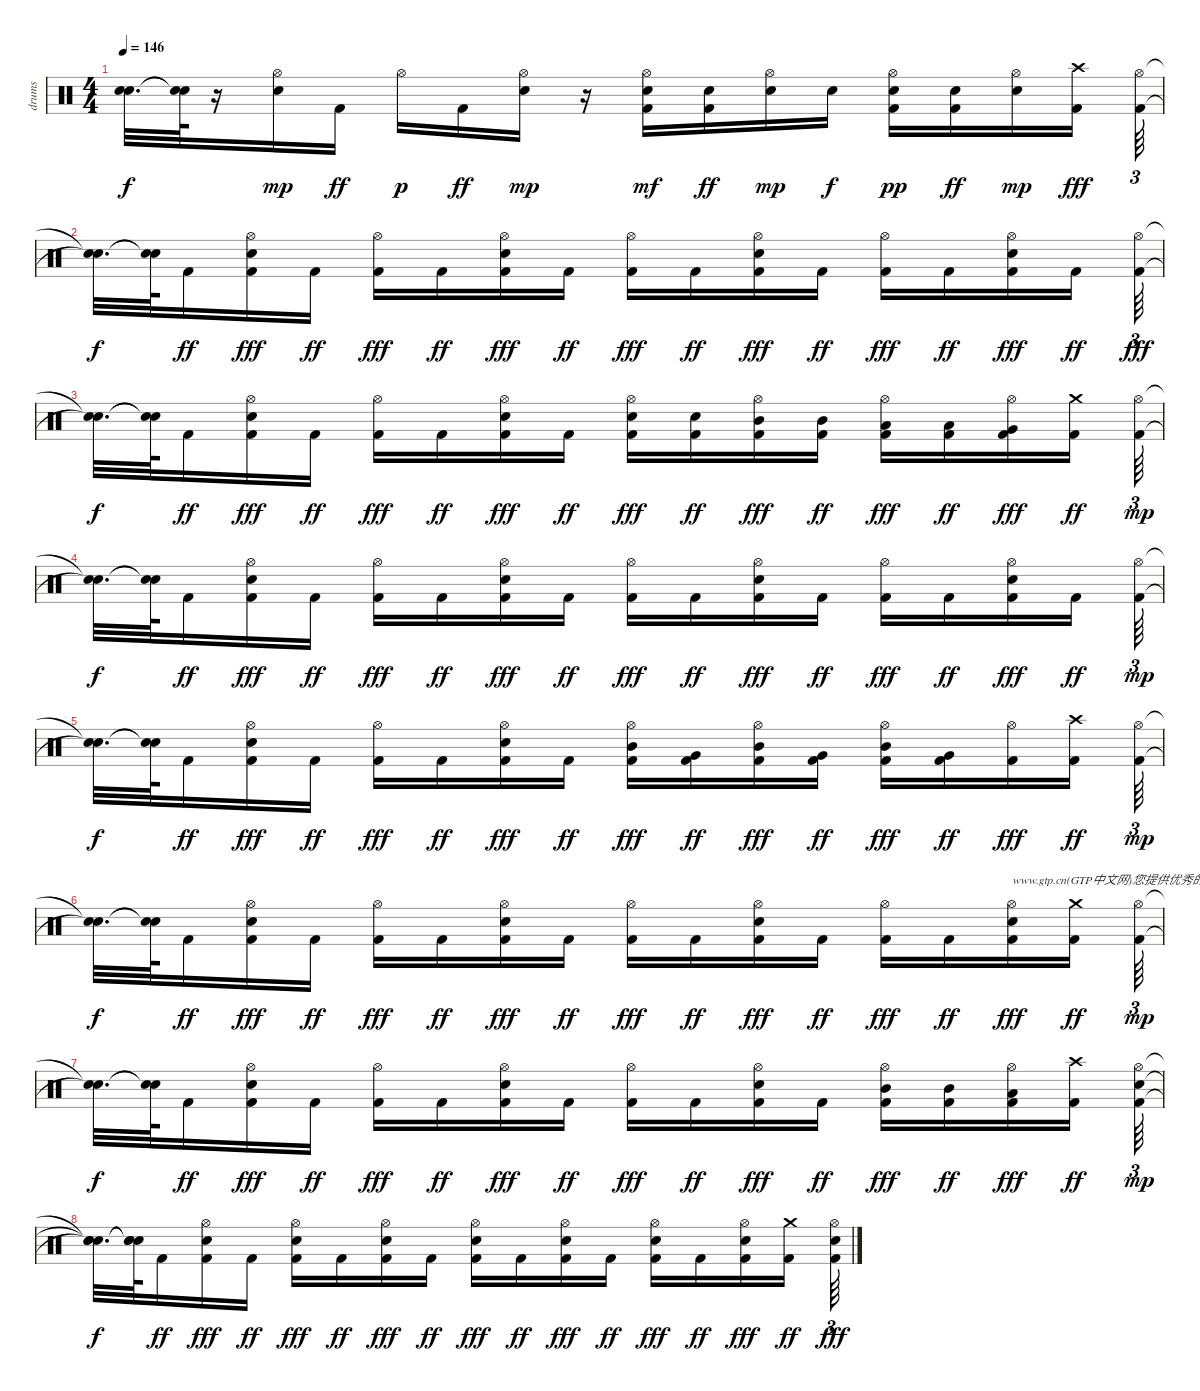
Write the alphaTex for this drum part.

\track ("drums" "drums") {instrument percussion}
\staff {score}
\articulation defaults
\ts (4 4)
\tempo 146
\clef neutral
\ks c
("Snare (hit)"{t} "Snare (hit)"{t}).32{d dy f} ("Snare (hit)"{t} "Snare (hit)"{t}).64 r.16 ("Hi-Hat (open)" "Electric Snare (hit)").16{dy mp} "Kick (hit) 2".16{dy ff} "Hi-Hat (open)".16{dy p} "Kick (hit) 2".16{dy ff} ("Hi-Hat (open)" "Electric Snare (hit)").16{dy mp} r.16 ("Hi-Hat (open)" "Electric Snare (hit)" "Kick (hit) 2").16{dy mf} ("Electric Snare (hit)" "Kick (hit) 2").16{dy ff} ("Hi-Hat (open)" "Electric Snare (hit)").16{dy mp} "Electric Snare (hit)".16{dy f} ("Hi-Hat (open)" "Electric Snare (hit)" "Kick (hit) 2").16{dy pp} ("Electric Snare (hit)" "Kick (hit) 2").16{dy ff} ("Hi-Hat (open)" "Electric Snare (hit)").16{dy mp} ("Crash high (hit)" "Kick (hit) 2").16{dy fff} ("Hi-Hat (open)" "Kick (hit) 2").64{tu (3 2)} |
("Snare (hit)"{t} "Snare (hit)"{t}).32{d dy f} ("Snare (hit)"{t} "Snare (hit)"{t}).64 "Kick (hit) 2".16{dy ff} ("Hi-Hat (open)" "Electric Snare (hit)" "Kick (hit) 2").16{dy fff} "Kick (hit) 2".16{dy ff} ("Hi-Hat (open)" "Kick (hit) 2").16{dy fff} "Kick (hit) 2".16{dy ff} ("Hi-Hat (open)" "Electric Snare (hit)" "Kick (hit) 2").16{dy fff} "Kick (hit) 2".16{dy ff} ("Hi-Hat (open)" "Kick (hit) 2").16{dy fff} "Kick (hit) 2".16{dy ff} ("Hi-Hat (open)" "Electric Snare (hit)" "Kick (hit) 2").16{dy fff} "Kick (hit) 2".16{dy ff} ("Hi-Hat (open)" "Kick (hit) 2").16{dy fff} "Kick (hit) 2".16{dy ff} ("Hi-Hat (open)" "Electric Snare (hit)" "Kick (hit) 2").16{dy fff} "Kick (hit) 2".16{dy ff} ("Hi-Hat (open)" "Kick (hit) 2").64{tu (3 2) dy fff} |
("Snare (hit)"{t} "Snare (hit)"{t}).32{d dy f} ("Snare (hit)"{t} "Snare (hit)"{t}).64 "Kick (hit) 2".16{dy ff} ("Hi-Hat (open)" "Electric Snare (hit)" "Kick (hit) 2").16{dy fff} "Kick (hit) 2".16{dy ff} ("Hi-Hat (open)" "Kick (hit) 2").16{dy fff} "Kick (hit) 2".16{dy ff} ("Hi-Hat (open)" "Electric Snare (hit)" "Kick (hit) 2").16{dy fff} "Kick (hit) 2".16{dy ff} ("Hi-Hat (open)" "Electric Snare (hit)" "Kick (hit) 2").16{dy fff} ("Electric Snare (hit)" "Kick (hit) 2").16{dy ff} ("Mid Tom (hit)" "Hi-Hat (open)" "Kick (hit) 2").16{dy fff} ("Mid Tom (hit)" "Kick (hit) 2").16{dy ff} ("Low Tom (hit)" "Hi-Hat (open)" "Kick (hit) 2").16{dy fff} ("Low Tom (hit)" "Kick (hit) 2").16{dy ff} ("Very Low Tom (hit)" "Hi-Hat (open)" "Kick (hit) 2").16{dy fff} ("Kick (hit) 2" "Crash medium (hit)").16{dy ff} ("Kick (hit) 2" "Hi-Hat (open)").64{tu (3 2) dy mp} |
("Snare (hit)"{t} "Snare (hit)"{t}).32{d dy f} ("Snare (hit)"{t} "Snare (hit)"{t}).64 "Kick (hit) 2".16{dy ff} ("Hi-Hat (open)" "Kick (hit) 2" "Electric Snare (hit)").16{dy fff} "Kick (hit) 2".16{dy ff} ("Hi-Hat (open)" "Kick (hit) 2").16{dy fff} "Kick (hit) 2".16{dy ff} ("Hi-Hat (open)" "Kick (hit) 2" "Electric Snare (hit)").16{dy fff} "Kick (hit) 2".16{dy ff} ("Hi-Hat (open)" "Kick (hit) 2").16{dy fff} "Kick (hit) 2".16{dy ff} ("Hi-Hat (open)" "Kick (hit) 2" "Electric Snare (hit)").16{dy fff} "Kick (hit) 2".16{dy ff} ("Hi-Hat (open)" "Kick (hit) 2").16{dy fff} "Kick (hit) 2".16{dy ff} ("Hi-Hat (open)" "Kick (hit) 2" "Electric Snare (hit)").16{dy fff} "Kick (hit) 2".16{dy ff} ("Kick (hit) 2" "Hi-Hat (open)").64{tu (3 2) dy mp} |
("Snare (hit)"{t} "Snare (hit)"{t}).32{d dy f} ("Snare (hit)"{t} "Snare (hit)"{t}).64 "Kick (hit) 2".16{dy ff} ("Hi-Hat (open)" "Kick (hit) 2" "Electric Snare (hit)").16{dy fff} "Kick (hit) 2".16{dy ff} ("Hi-Hat (open)" "Kick (hit) 2").16{dy fff} "Kick (hit) 2".16{dy ff} ("Hi-Hat (open)" "Kick (hit) 2" "Electric Snare (hit)").16{dy fff} "Kick (hit) 2".16{dy ff} ("Hi-Hat (open)" "Mid Tom (hit)" "Kick (hit) 2").16{dy fff} ("Very Low Tom (hit)" "Kick (hit) 2").16{dy ff} ("Hi-Hat (open)" "Mid Tom (hit)" "Kick (hit) 2").16{dy fff} ("Very Low Tom (hit)" "Kick (hit) 2").16{dy ff} ("Hi-Hat (open)" "Mid Tom (hit)" "Kick (hit) 2").16{dy fff} ("Very Low Tom (hit)" "Kick (hit) 2").16{dy ff} ("Hi-Hat (open)" "Kick (hit) 2").16{dy fff} ("Crash high (hit)" "Kick (hit) 2").16{dy ff} ("Kick (hit) 2" "Hi-Hat (open)").64{tu (3 2) dy mp} |
("Snare (hit)"{t} "Snare (hit)"{t}).32{d dy f} ("Snare (hit)"{t} "Snare (hit)"{t}).64 "Kick (hit) 2".16{dy ff} ("Hi-Hat (open)" "Kick (hit) 2" "Electric Snare (hit)").16{dy fff} "Kick (hit) 2".16{dy ff} ("Hi-Hat (open)" "Kick (hit) 2").16{dy fff} "Kick (hit) 2".16{dy ff} ("Hi-Hat (open)" "Kick (hit) 2" "Electric Snare (hit)").16{dy fff} "Kick (hit) 2".16{dy ff} ("Hi-Hat (open)" "Kick (hit) 2").16{dy fff} "Kick (hit) 2".16{dy ff} ("Hi-Hat (open)" "Kick (hit) 2" "Electric Snare (hit)").16{dy fff} "Kick (hit) 2".16{dy ff} ("Hi-Hat (open)" "Kick (hit) 2").16{dy fff} "Kick (hit) 2".16{dy ff} ("Hi-Hat (open)" "Kick (hit) 2" "Electric Snare (hit)").16{txt "www.gtp.cn(GTP中文网)您提供优秀的GTP" dy fff} ("Crash medium (hit)" "Kick (hit) 2").16{dy ff} ("Kick (hit) 2" "Hi-Hat (open)").64{tu (3 2) dy mp} |
("Snare (hit)"{t} "Snare (hit)"{t}).32{d dy f} ("Snare (hit)"{t} "Snare (hit)"{t}).64 "Kick (hit) 2".16{dy ff} ("Hi-Hat (open)" "Kick (hit) 2" "Electric Snare (hit)").16{dy fff} "Kick (hit) 2".16{dy ff} ("Hi-Hat (open)" "Kick (hit) 2").16{dy fff} "Kick (hit) 2".16{dy ff} ("Hi-Hat (open)" "Kick (hit) 2" "Electric Snare (hit)").16{dy fff} "Kick (hit) 2".16{dy ff} ("Hi-Hat (open)" "Kick (hit) 2").16{dy fff} "Kick (hit) 2".16{dy ff} ("Hi-Hat (open)" "Kick (hit) 2" "Electric Snare (hit)").16{dy fff} "Kick (hit) 2".16{dy ff} ("Hi-Hat (open)" "Mid Tom (hit)" "Kick (hit) 2").16{dy fff} ("Mid Tom (hit)" "Kick (hit) 2").16{dy ff} ("Hi-Hat (open)" "Low Tom (hit)" "Kick (hit) 2").16{dy fff} ("Crash high (hit)" "Kick (hit) 2").16{dy ff} ("Kick (hit) 2" "Electric Snare (hit)" "Hi-Hat (open)").64{tu (3 2) dy mp} |
("Snare (hit)"{t} "Snare (hit)"{t} "Snare (hit)"{t}).32{d dy f} ("Snare (hit)"{t} "Snare (hit)"{t} "Snare (hit)"{t}).64 "Kick (hit) 2".16{dy ff} ("Hi-Hat (open)" "Kick (hit) 2" "Electric Snare (hit)").16{dy fff} "Kick (hit) 2".16{dy ff} ("Hi-Hat (open)" "Electric Snare (hit)" "Kick (hit) 2").16{dy fff} "Kick (hit) 2".16{dy ff} ("Hi-Hat (open)" "Electric Snare (hit)" "Kick (hit) 2").16{dy fff} "Kick (hit) 2".16{dy ff} ("Hi-Hat (open)" "Electric Snare (hit)" "Kick (hit) 2").16{dy fff} "Kick (hit) 2".16{dy ff} ("Hi-Hat (open)" "Electric Snare (hit)" "Kick (hit) 2").16{dy fff} "Kick (hit) 2".16{dy ff} ("Electric Snare (hit)" "Hi-Hat (open)" "Kick (hit) 2").16{dy fff} "Kick (hit) 2".16{dy ff} ("Hi-Hat (open)" "Electric Snare (hit)" "Kick (hit) 2").16{dy fff} ("Kick (hit) 2" "Crash medium (hit)").16{dy ff} ("Electric Snare (hit)" "Hi-Hat (open)" "Kick (hit) 2").64{tu (3 2) dy fff}
